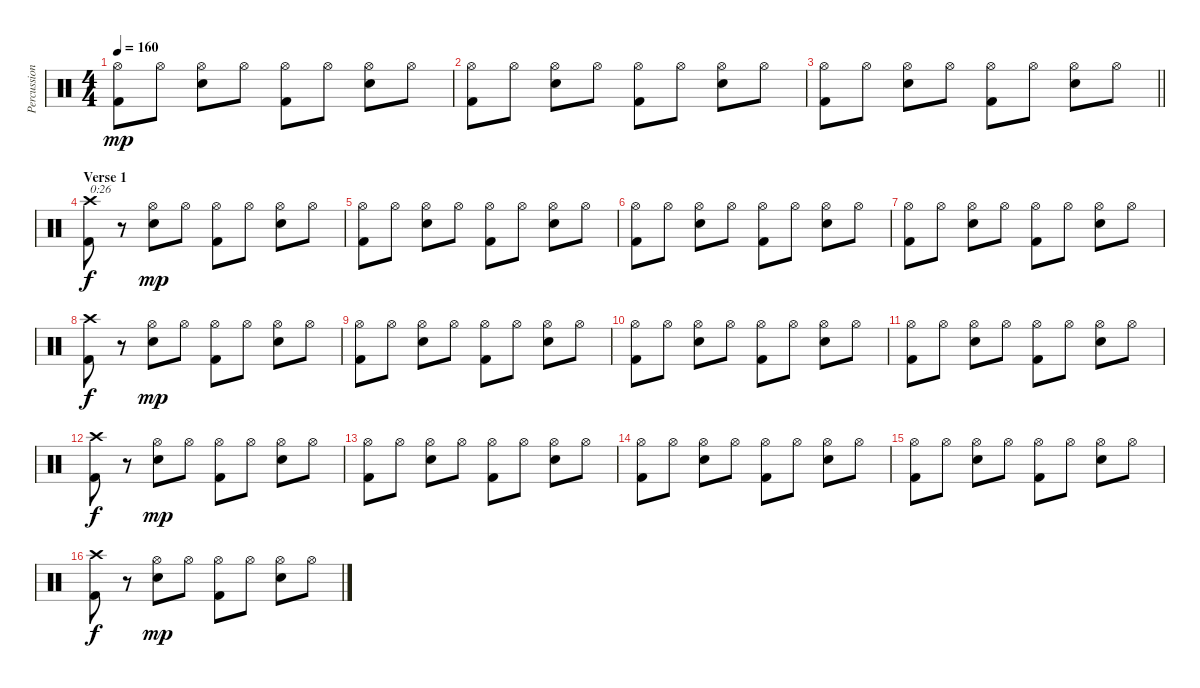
\track ("Percussion - live 1983" "Percussion") {mute instrument percussion}
\staff {score}
\articulation defaults
\ts (4 4)
\tempo 160
\clef neutral
\ks c
("Hi-Hat (open)" "Kick (hit) 2").8{dy mp} "Hi-Hat (open)".8 ("Hi-Hat (open)" "Snare (hit) 2").8 "Hi-Hat (open)".8 ("Hi-Hat (open)" "Kick (hit) 2").8 "Hi-Hat (open)".8 ("Hi-Hat (open)" "Snare (hit) 2").8 "Hi-Hat (open)".8 |
("Hi-Hat (open)" "Kick (hit) 2").8 "Hi-Hat (open)".8 ("Hi-Hat (open)" "Snare (hit) 2").8 "Hi-Hat (open)".8 ("Hi-Hat (open)" "Kick (hit) 2").8 "Hi-Hat (open)".8 ("Hi-Hat (open)" "Snare (hit) 2").8 "Hi-Hat (open)".8 |
\barLineRight lightlight
("Hi-Hat (open)" "Kick (hit) 2").8 "Hi-Hat (open)".8 ("Hi-Hat (open)" "Snare (hit) 2").8 "Hi-Hat (open)".8 ("Hi-Hat (open)" "Kick (hit) 2").8 "Hi-Hat (open)".8 ("Hi-Hat (open)" "Snare (hit) 2").8 "Hi-Hat (open)".8 |
\section ("" "Verse 1")
("Crash high (hit)" "Kick (hit) 2").8{txt "0:26" dy f} r.8 ("Hi-Hat (open)" "Snare (hit) 2").8{dy mp} "Hi-Hat (open)".8 ("Hi-Hat (open)" "Kick (hit) 2").8 "Hi-Hat (open)".8 ("Hi-Hat (open)" "Snare (hit) 2").8 "Hi-Hat (open)".8 |
("Hi-Hat (open)" "Kick (hit) 2").8 "Hi-Hat (open)".8 ("Hi-Hat (open)" "Snare (hit) 2").8 "Hi-Hat (open)".8 ("Hi-Hat (open)" "Kick (hit) 2").8 "Hi-Hat (open)".8 ("Hi-Hat (open)" "Snare (hit) 2").8 "Hi-Hat (open)".8 |
("Hi-Hat (open)" "Kick (hit) 2").8 "Hi-Hat (open)".8 ("Hi-Hat (open)" "Snare (hit) 2").8 "Hi-Hat (open)".8 ("Hi-Hat (open)" "Kick (hit) 2").8 "Hi-Hat (open)".8 ("Hi-Hat (open)" "Snare (hit) 2").8 "Hi-Hat (open)".8 |
("Hi-Hat (open)" "Kick (hit) 2").8 "Hi-Hat (open)".8 ("Hi-Hat (open)" "Snare (hit) 2").8 "Hi-Hat (open)".8 ("Hi-Hat (open)" "Kick (hit) 2").8 "Hi-Hat (open)".8 ("Hi-Hat (open)" "Snare (hit) 2").8 "Hi-Hat (open)".8 |
("Crash high (hit)" "Kick (hit) 2").8{dy f} r.8 ("Hi-Hat (open)" "Snare (hit) 2").8{dy mp} "Hi-Hat (open)".8 ("Hi-Hat (open)" "Kick (hit) 2").8 "Hi-Hat (open)".8 ("Hi-Hat (open)" "Snare (hit) 2").8 "Hi-Hat (open)".8 |
("Hi-Hat (open)" "Kick (hit) 2").8 "Hi-Hat (open)".8 ("Hi-Hat (open)" "Snare (hit) 2").8 "Hi-Hat (open)".8 ("Hi-Hat (open)" "Kick (hit) 2").8 "Hi-Hat (open)".8 ("Hi-Hat (open)" "Snare (hit) 2").8 "Hi-Hat (open)".8 |
("Hi-Hat (open)" "Kick (hit) 2").8 "Hi-Hat (open)".8 ("Hi-Hat (open)" "Snare (hit) 2").8 "Hi-Hat (open)".8 ("Hi-Hat (open)" "Kick (hit) 2").8 "Hi-Hat (open)".8 ("Hi-Hat (open)" "Snare (hit) 2").8 "Hi-Hat (open)".8 |
("Hi-Hat (open)" "Kick (hit) 2").8 "Hi-Hat (open)".8 ("Hi-Hat (open)" "Snare (hit) 2").8 "Hi-Hat (open)".8 ("Hi-Hat (open)" "Kick (hit) 2").8 "Hi-Hat (open)".8 ("Hi-Hat (open)" "Snare (hit) 2").8 "Hi-Hat (open)".8 |
("Crash high (hit)" "Kick (hit) 2").8{dy f} r.8 ("Hi-Hat (open)" "Snare (hit) 2").8{dy mp} "Hi-Hat (open)".8 ("Hi-Hat (open)" "Kick (hit) 2").8 "Hi-Hat (open)".8 ("Hi-Hat (open)" "Snare (hit) 2").8 "Hi-Hat (open)".8 |
("Hi-Hat (open)" "Kick (hit) 2").8 "Hi-Hat (open)".8 ("Hi-Hat (open)" "Snare (hit) 2").8 "Hi-Hat (open)".8 ("Hi-Hat (open)" "Kick (hit) 2").8 "Hi-Hat (open)".8 ("Hi-Hat (open)" "Snare (hit) 2").8 "Hi-Hat (open)".8 |
("Hi-Hat (open)" "Kick (hit) 2").8 "Hi-Hat (open)".8 ("Hi-Hat (open)" "Snare (hit) 2").8 "Hi-Hat (open)".8 ("Hi-Hat (open)" "Kick (hit) 2").8 "Hi-Hat (open)".8 ("Hi-Hat (open)" "Snare (hit) 2").8 "Hi-Hat (open)".8 |
("Hi-Hat (open)" "Kick (hit) 2").8 "Hi-Hat (open)".8 ("Hi-Hat (open)" "Snare (hit) 2").8 "Hi-Hat (open)".8 ("Hi-Hat (open)" "Kick (hit) 2").8 "Hi-Hat (open)".8 ("Hi-Hat (open)" "Snare (hit) 2").8 "Hi-Hat (open)".8 |
("Crash high (hit)" "Kick (hit) 2").8{dy f} r.8 ("Hi-Hat (open)" "Snare (hit) 2").8{dy mp} "Hi-Hat (open)".8 ("Hi-Hat (open)" "Kick (hit) 2").8 "Hi-Hat (open)".8 ("Hi-Hat (open)" "Snare (hit) 2").8 "Hi-Hat (open)".8
